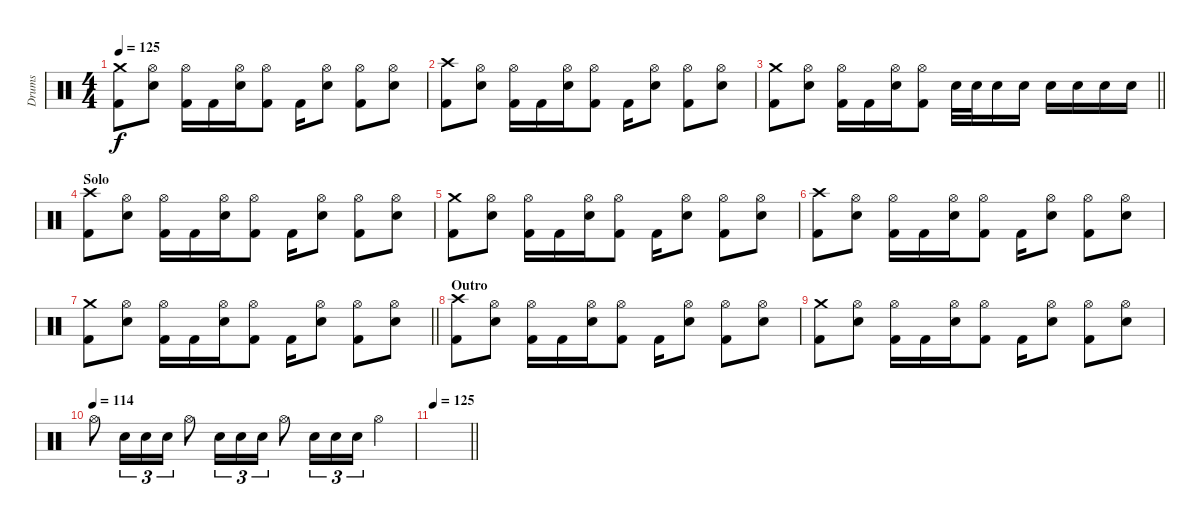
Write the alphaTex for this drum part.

\track ("Drums" "Drums") {instrument percussion}
\staff {score}
\articulation defaults
\ts (4 4)
\tempo 125
\clef neutral
\ks c
("Crash medium (hit)" "Kick (hit) 2").8{dy f} ("Hi-Hat (open)" "Electric Snare (hit)").8 ("Hi-Hat (open)" "Kick (hit) 2").16 "Kick (hit) 2".16 ("Hi-Hat (open)" "Electric Snare (hit)").16 ("Hi-Hat (open)" "Kick (hit) 2").8 "Kick (hit) 2".16 ("Hi-Hat (open)" "Electric Snare (hit)").8 ("Hi-Hat (open)" "Kick (hit) 2").8 ("Hi-Hat (open)" "Electric Snare (hit)").8 |
("Crash high (hit)" "Kick (hit) 2").8 ("Hi-Hat (open)" "Electric Snare (hit)").8 ("Hi-Hat (open)" "Kick (hit) 2").16 "Kick (hit) 2".16 ("Hi-Hat (open)" "Electric Snare (hit)").16 ("Hi-Hat (open)" "Kick (hit) 2").8 "Kick (hit) 2".16 ("Hi-Hat (open)" "Electric Snare (hit)").8 ("Hi-Hat (open)" "Kick (hit) 2").8 ("Hi-Hat (open)" "Electric Snare (hit)").8 |
\barLineRight lightlight
("Crash medium (hit)" "Kick (hit) 2").8 ("Hi-Hat (open)" "Electric Snare (hit)").8 ("Hi-Hat (open)" "Kick (hit) 2").16 "Kick (hit) 2".16 ("Hi-Hat (open)" "Electric Snare (hit)").16 ("Hi-Hat (open)" "Kick (hit) 2").8 "Electric Snare (hit)".32 "Electric Snare (hit)".32 "Electric Snare (hit)".16 "Electric Snare (hit)".16 "Electric Snare (hit)".16 "Electric Snare (hit)".16 "Electric Snare (hit)".16 "Electric Snare (hit)".16 |
\section ("" "Solo")
("Crash high (hit)" "Kick (hit) 2").8 ("Hi-Hat (open)" "Electric Snare (hit)").8 ("Hi-Hat (open)" "Kick (hit) 2").16 "Kick (hit) 2".16 ("Hi-Hat (open)" "Electric Snare (hit)").16 ("Hi-Hat (open)" "Kick (hit) 2").8 "Kick (hit) 2".16 ("Hi-Hat (open)" "Electric Snare (hit)").8 ("Hi-Hat (open)" "Kick (hit) 2").8 ("Hi-Hat (open)" "Electric Snare (hit)").8 |
("Crash medium (hit)" "Kick (hit) 2").8 ("Hi-Hat (open)" "Electric Snare (hit)").8 ("Hi-Hat (open)" "Kick (hit) 2").16 "Kick (hit) 2".16 ("Hi-Hat (open)" "Electric Snare (hit)").16 ("Hi-Hat (open)" "Kick (hit) 2").8 "Kick (hit) 2".16 ("Hi-Hat (open)" "Electric Snare (hit)").8 ("Hi-Hat (open)" "Kick (hit) 2").8 ("Hi-Hat (open)" "Electric Snare (hit)").8 |
("Crash high (hit)" "Kick (hit) 2").8 ("Hi-Hat (open)" "Electric Snare (hit)").8 ("Hi-Hat (open)" "Kick (hit) 2").16 "Kick (hit) 2".16 ("Hi-Hat (open)" "Electric Snare (hit)").16 ("Hi-Hat (open)" "Kick (hit) 2").8 "Kick (hit) 2".16 ("Hi-Hat (open)" "Electric Snare (hit)").8 ("Hi-Hat (open)" "Kick (hit) 2").8 ("Hi-Hat (open)" "Electric Snare (hit)").8 |
\barLineRight lightlight
("Crash medium (hit)" "Kick (hit) 2").8 ("Hi-Hat (open)" "Electric Snare (hit)").8 ("Hi-Hat (open)" "Kick (hit) 2").16 "Kick (hit) 2".16 ("Hi-Hat (open)" "Electric Snare (hit)").16 ("Hi-Hat (open)" "Kick (hit) 2").8 "Kick (hit) 2".16 ("Hi-Hat (open)" "Electric Snare (hit)").8 ("Hi-Hat (open)" "Kick (hit) 2").8 ("Hi-Hat (open)" "Electric Snare (hit)").8 |
\section ("" "Outro")
("Crash high (hit)" "Kick (hit) 2").8 ("Hi-Hat (open)" "Electric Snare (hit)").8 ("Hi-Hat (open)" "Kick (hit) 2").16 "Kick (hit) 2".16 ("Hi-Hat (open)" "Electric Snare (hit)").16 ("Hi-Hat (open)" "Kick (hit) 2").8 "Kick (hit) 2".16 ("Hi-Hat (open)" "Electric Snare (hit)").8 ("Hi-Hat (open)" "Kick (hit) 2").8 ("Hi-Hat (open)" "Electric Snare (hit)").8 |
("Crash medium (hit)" "Kick (hit) 2").8 ("Hi-Hat (open)" "Electric Snare (hit)").8 ("Hi-Hat (open)" "Kick (hit) 2").16 "Kick (hit) 2".16 ("Hi-Hat (open)" "Electric Snare (hit)").16 ("Hi-Hat (open)" "Kick (hit) 2").8 "Kick (hit) 2".16 ("Hi-Hat (open)" "Electric Snare (hit)").8 ("Hi-Hat (open)" "Kick (hit) 2").8 ("Hi-Hat (open)" "Electric Snare (hit)").8 |
\tempo (114)
"Hi-Hat (open)".8 "Electric Snare (hit)".16{tu (3 2)} "Electric Snare (hit)".16{tu (3 2)} "Electric Snare (hit)".16{tu (3 2)} "Hi-Hat (open)".8 "Electric Snare (hit)".16{tu (3 2)} "Electric Snare (hit)".16{tu (3 2)} "Electric Snare (hit)".16{tu (3 2)} "Hi-Hat (open)".8 "Electric Snare (hit)".16{tu (3 2)} "Electric Snare (hit)".16{tu (3 2)} "Electric Snare (hit)".16{tu (3 2)} "Hi-Hat (open)".4 |
\tempo 125
\barLineRight lightlight
